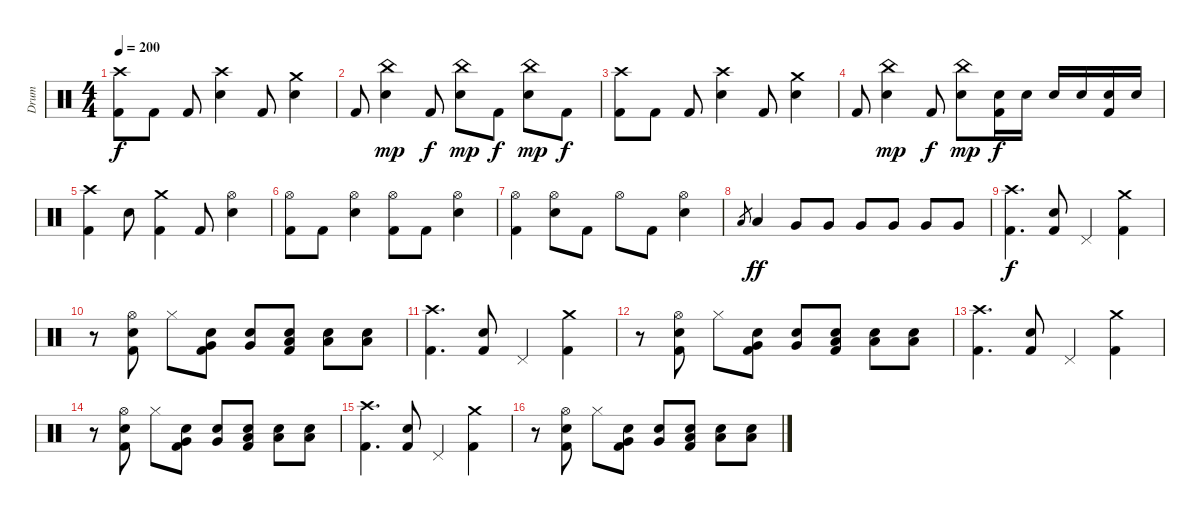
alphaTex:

\track ("Drum" "Drum") {instrument percussion}
\staff {score}
\articulation defaults
\ts (4 4)
\tempo 200
\clef neutral
\ks c
("Crash high (hit)" "Kick (hit) 2").8{dy f} "Kick (hit) 2".8 "Kick (hit) 2".8 ("Crash high (hit)" "Electric Snare (hit)").4 "Kick (hit) 2".8 ("Crash medium (hit)" "Electric Snare (hit)").4 |
"Kick (hit) 2".8 ("China (hit)" "Electric Snare (hit)").4{dy mp} "Kick (hit) 2".8{dy f} ("China (hit)" "Electric Snare (hit)").8{dy mp} "Kick (hit) 2".8{dy f} ("China (hit)" "Electric Snare (hit)").8{dy mp} "Kick (hit) 2".8{dy f} |
("Crash high (hit)" "Kick (hit) 2").8 "Kick (hit) 2".8 "Kick (hit) 2".8 ("Crash high (hit)" "Electric Snare (hit)").4 "Kick (hit) 2".8 ("Crash medium (hit)" "Electric Snare (hit)").4 |
"Kick (hit) 2".8 ("China (hit)" "Electric Snare (hit)").4{dy mp} "Kick (hit) 2".8{dy f} ("China (hit)" "Electric Snare (hit)").8{dy mp} ("Electric Snare (hit)" "Kick (hit) 2").16{dy f} "Electric Snare (hit)".16 "Electric Snare (hit)".16 "Electric Snare (hit)".16 ("Electric Snare (hit)" "Kick (hit) 2").16 "Electric Snare (hit)".16 |
("Crash high (hit)" "Kick (hit) 2").4 "Electric Snare (hit)".8 ("Crash medium (hit)" "Kick (hit) 2").4 "Kick (hit) 2".8 ("Hi-Hat (open)" "Electric Snare (hit)").4 |
("Hi-Hat (open)" "Kick (hit) 2").8 "Kick (hit) 2".8 ("Hi-Hat (open)" "Electric Snare (hit)").4 ("Hi-Hat (open)" "Kick (hit) 2").8 "Kick (hit) 2".8 ("Hi-Hat (open)" "Electric Snare (hit)").4 |
("Hi-Hat (open)" "Kick (hit) 2").4 ("Hi-Hat (open)" "Electric Snare (hit)").8 "Kick (hit) 2".8 "Hi-Hat (open)".8 "Kick (hit) 2".8 ("Hi-Hat (open)" "Electric Snare (hit)").4 |
"Low Tom (hit)".8{gr} "Low Tom (hit)".4{dy ff} "Very Low Tom (hit)".8 "Very Low Tom (hit)".8 "Very Low Tom (hit)".8 "Very Low Tom (hit)".8 "Very Low Tom (hit)".8 "Very Low Tom (hit)".8 |
("Crash high (hit)" "Kick (hit) 2").4{d dy f} ("Electric Snare (hit)" "Kick (hit) 2").8 "Pedal Hi-Hat (hit)".4 ("Crash medium (hit)" "Kick (hit) 2").4 |
r.8 ("Hi-Hat (open)" "Electric Snare (hit)" "Kick (hit) 2").8 "Hi-Hat (closed)".8 ("Electric Snare (hit)" "Very Low Tom (hit)" "Kick (hit) 2").8 ("Electric Snare (hit)" "Very Low Tom (hit)").8 ("Electric Snare (hit)" "Low Floor Tom (hit)" "Kick (hit) 2").8 ("Electric Snare (hit)" "Low Floor Tom (hit)").8 ("Electric Snare (hit)" "Low Floor Tom (hit)").8 |
("Crash high (hit)" "Kick (hit) 2").4{d} ("Electric Snare (hit)" "Kick (hit) 2").8 "Pedal Hi-Hat (hit)".4 ("Crash medium (hit)" "Kick (hit) 2").4 |
r.8 ("Hi-Hat (open)" "Electric Snare (hit)" "Kick (hit) 2").8 "Hi-Hat (closed)".8 ("Electric Snare (hit)" "Very Low Tom (hit)" "Kick (hit) 2").8 ("Electric Snare (hit)" "Very Low Tom (hit)").8 ("Electric Snare (hit)" "Low Floor Tom (hit)" "Kick (hit) 2").8 ("Electric Snare (hit)" "Low Floor Tom (hit)").8 ("Electric Snare (hit)" "Low Floor Tom (hit)").8 |
("Crash high (hit)" "Kick (hit) 2").4{d} ("Electric Snare (hit)" "Kick (hit) 2").8 "Pedal Hi-Hat (hit)".4 ("Crash medium (hit)" "Kick (hit) 2").4 |
r.8 ("Hi-Hat (open)" "Electric Snare (hit)" "Kick (hit) 2").8 "Hi-Hat (closed)".8 ("Electric Snare (hit)" "Very Low Tom (hit)" "Kick (hit) 2").8 ("Electric Snare (hit)" "Very Low Tom (hit)").8 ("Electric Snare (hit)" "Low Floor Tom (hit)" "Kick (hit) 2").8 ("Electric Snare (hit)" "Low Floor Tom (hit)").8 ("Electric Snare (hit)" "Low Floor Tom (hit)").8 |
("Crash high (hit)" "Kick (hit) 2").4{d} ("Electric Snare (hit)" "Kick (hit) 2").8 "Pedal Hi-Hat (hit)".4 ("Crash medium (hit)" "Kick (hit) 2").4 |
r.8 ("Hi-Hat (open)" "Electric Snare (hit)" "Kick (hit) 2").8 "Hi-Hat (closed)".8 ("Electric Snare (hit)" "Very Low Tom (hit)" "Kick (hit) 2").8 ("Electric Snare (hit)" "Very Low Tom (hit)").8 ("Electric Snare (hit)" "Low Floor Tom (hit)" "Kick (hit) 2").8 ("Electric Snare (hit)" "Low Floor Tom (hit)").8 ("Electric Snare (hit)" "Low Floor Tom (hit)").8
